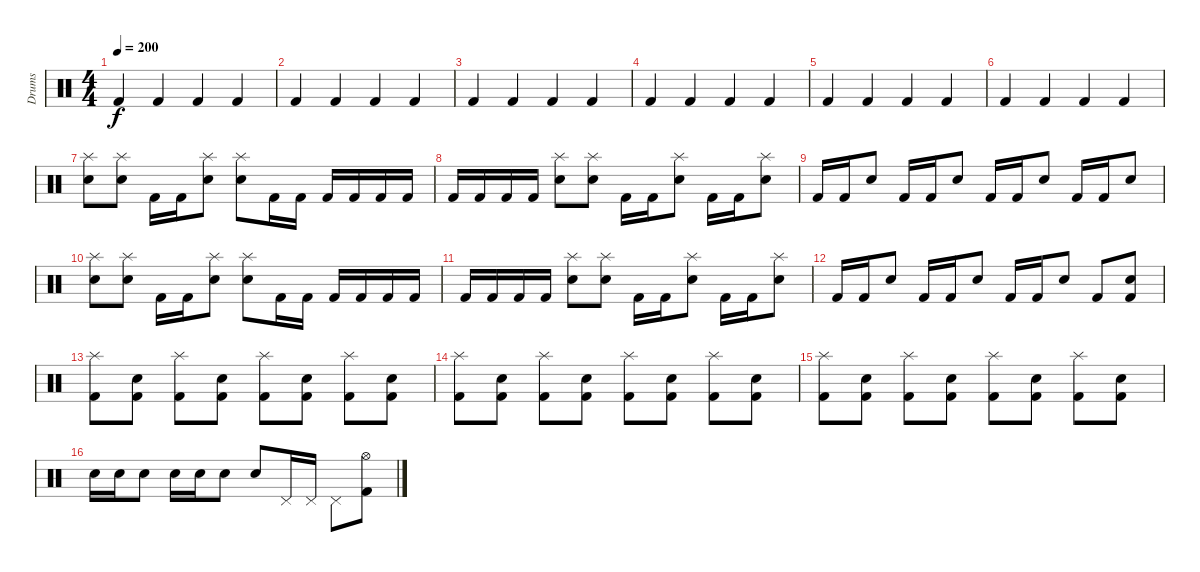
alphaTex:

\track ("Drums" "Drums") {instrument percussion}
\staff {score}
\articulation defaults
\ts (4 4)
\tempo 200
\clef neutral
\ks c "Kick (hit) 2".4{dy f} "Kick (hit) 2".4 "Kick (hit) 2".4 "Kick (hit) 2".4
|
"Kick (hit) 2".4 "Kick (hit) 2".4 "Kick (hit) 2".4 "Kick (hit) 2".4 |
"Kick (hit) 2".4 "Kick (hit) 2".4 "Kick (hit) 2".4 "Kick (hit) 2".4 |
"Kick (hit) 2".4 "Kick (hit) 2".4 "Kick (hit) 2".4 "Kick (hit) 2".4 |
"Kick (hit) 2".4 "Kick (hit) 2".4 "Kick (hit) 2".4 "Kick (hit) 2".4 |
"Kick (hit) 2".4 "Kick (hit) 2".4 "Kick (hit) 2".4 "Kick (hit) 2".4 |
("Splash (hit)" "Snare (hit) 2").8 ("Splash (hit)" "Snare (hit) 2").8 "Kick (hit) 2".16 "Kick (hit) 2".16 ("Splash (hit)" "Snare (hit) 2").8 ("Splash (hit)" "Snare (hit) 2").8 "Kick (hit) 2".16 "Kick (hit) 2".16 "Kick (hit) 2".16 "Kick (hit) 2".16 "Kick (hit) 2".16 "Kick (hit) 2".16 |
"Kick (hit) 2".16 "Kick (hit) 2".16 "Kick (hit) 2".16 "Kick (hit) 2".16 ("Splash (hit)" "Snare (hit) 2").8 ("Splash (hit)" "Snare (hit) 2").8 "Kick (hit) 2".16 "Kick (hit) 2".16 ("Splash (hit)" "Snare (hit) 2").8 "Kick (hit) 2".16 "Kick (hit) 2".16 ("Splash (hit)" "Snare (hit) 2").8 |
"Kick (hit) 2".16 "Kick (hit) 2".16 "Snare (hit) 2".8 "Kick (hit) 2".16 "Kick (hit) 2".16 "Snare (hit) 2".8 "Kick (hit) 2".16 "Kick (hit) 2".16 "Snare (hit) 2".8 "Kick (hit) 2".16 "Kick (hit) 2".16 "Snare (hit) 2".8 |
("Splash (hit)" "Snare (hit) 2").8 ("Splash (hit)" "Snare (hit) 2").8 "Kick (hit) 2".16 "Kick (hit) 2".16 ("Splash (hit)" "Snare (hit) 2").8 ("Splash (hit)" "Snare (hit) 2").8 "Kick (hit) 2".16 "Kick (hit) 2".16 "Kick (hit) 2".16 "Kick (hit) 2".16 "Kick (hit) 2".16 "Kick (hit) 2".16 |
"Kick (hit) 2".16 "Kick (hit) 2".16 "Kick (hit) 2".16 "Kick (hit) 2".16 ("Splash (hit)" "Snare (hit) 2").8 ("Splash (hit)" "Snare (hit) 2").8 "Kick (hit) 2".16 "Kick (hit) 2".16 ("Splash (hit)" "Snare (hit) 2").8 "Kick (hit) 2".16 "Kick (hit) 2".16 ("Splash (hit)" "Snare (hit) 2").8 |
"Kick (hit) 2".16 "Kick (hit) 2".16 "Snare (hit) 2".8 "Kick (hit) 2".16 "Kick (hit) 2".16 "Snare (hit) 2".8 "Kick (hit) 2".16 "Kick (hit) 2".16 "Snare (hit) 2".8 "Kick (hit) 2".8 ("Snare (hit) 2" "Kick (hit) 2").8 |
("Splash (hit)" "Kick (hit) 2").8 ("Snare (hit) 2" "Kick (hit) 2").8 ("Splash (hit)" "Kick (hit) 2").8 ("Snare (hit) 2" "Kick (hit) 2").8 ("Splash (hit)" "Kick (hit) 2").8 ("Snare (hit) 2" "Kick (hit) 2").8 ("Splash (hit)" "Kick (hit) 2").8 ("Snare (hit) 2" "Kick (hit) 2").8 |
("Splash (hit)" "Kick (hit) 2").8 ("Snare (hit) 2" "Kick (hit) 2").8 ("Splash (hit)" "Kick (hit) 2").8 ("Snare (hit) 2" "Kick (hit) 2").8 ("Splash (hit)" "Kick (hit) 2").8 ("Snare (hit) 2" "Kick (hit) 2").8 ("Splash (hit)" "Kick (hit) 2").8 ("Snare (hit) 2" "Kick (hit) 2").8 |
("Splash (hit)" "Kick (hit) 2").8 ("Snare (hit) 2" "Kick (hit) 2").8 ("Splash (hit)" "Kick (hit) 2").8 ("Snare (hit) 2" "Kick (hit) 2").8 ("Splash (hit)" "Kick (hit) 2").8 ("Snare (hit) 2" "Kick (hit) 2").8 ("Splash (hit)" "Kick (hit) 2").8 ("Snare (hit) 2" "Kick (hit) 2").8 |
"Snare (hit) 2".16 "Snare (hit) 2".16 "Snare (hit) 2".8 "Snare (hit) 2".16 "Snare (hit) 2".16 "Snare (hit) 2".8 "Snare (hit) 2".8 "Pedal Hi-Hat (hit)".16 "Pedal Hi-Hat (hit)".16 "Pedal Hi-Hat (hit)".8 ("Hi-Hat (open)" "Kick (hit) 2").8
